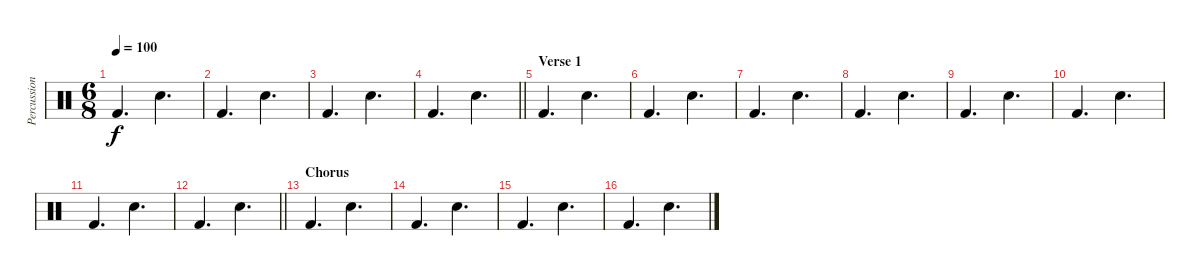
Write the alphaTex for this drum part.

\track ("Percussion" "Percussion") {instrument percussion}
\staff {score}
\articulation defaults
\ts (6 8)
\tempo 100
\clef neutral
\ks c "Kick (hit) 2".4{d dy f} "Snare (hit) 2".4{d}
|
"Kick (hit) 2".4{d} "Snare (hit) 2".4{d} |
"Kick (hit) 2".4{d} "Snare (hit) 2".4{d} |
\barLineRight lightlight "Kick (hit) 2".4{d} "Snare (hit) 2".4{d}
|
\section ("" "Verse 1")
"Kick (hit) 2".4{d} "Snare (hit) 2".4{d} |
"Kick (hit) 2".4{d} "Snare (hit) 2".4{d} |
"Kick (hit) 2".4{d} "Snare (hit) 2".4{d} |
"Kick (hit) 2".4{d} "Snare (hit) 2".4{d} |
"Kick (hit) 2".4{d} "Snare (hit) 2".4{d} |
"Kick (hit) 2".4{d} "Snare (hit) 2".4{d} |
"Kick (hit) 2".4{d} "Snare (hit) 2".4{d} |
\barLineRight lightlight "Kick (hit) 2".4{d} "Snare (hit) 2".4{d}
|
\section ("" "Chorus")
"Kick (hit) 2".4{d} "Snare (hit) 2".4{d} |
"Kick (hit) 2".4{d} "Snare (hit) 2".4{d} |
"Kick (hit) 2".4{d} "Snare (hit) 2".4{d} |
"Kick (hit) 2".4{d} "Snare (hit) 2".4{d}
